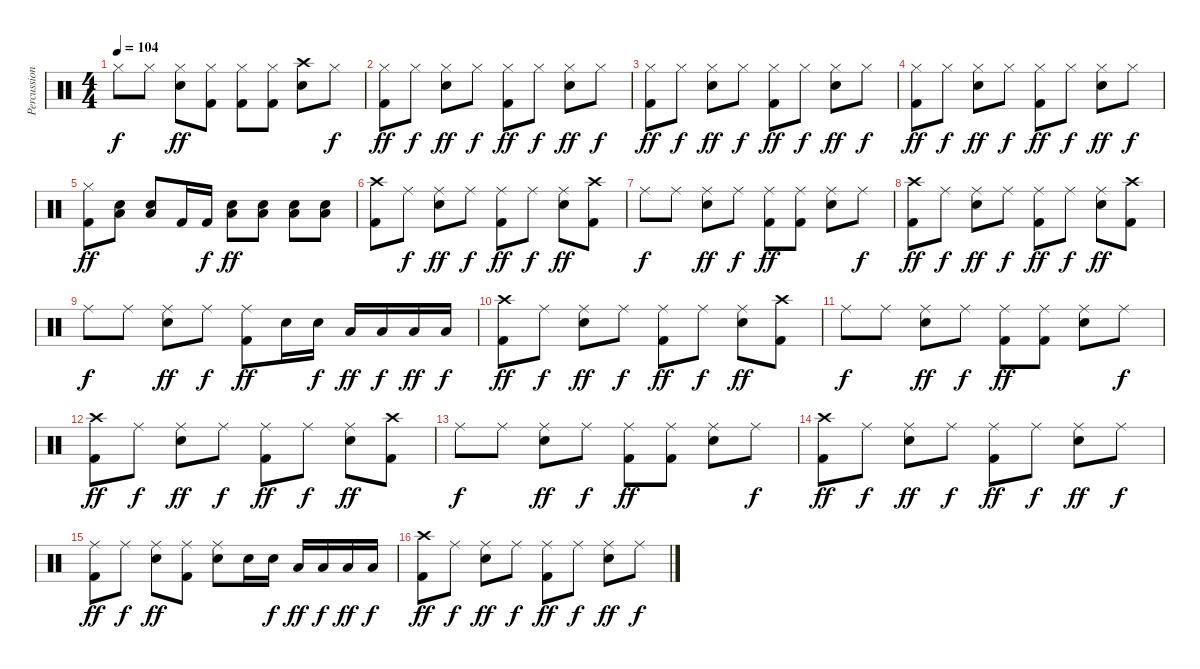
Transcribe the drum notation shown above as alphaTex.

\track ("Percussion" "Percussion") {instrument percussion}
\staff {score}
\articulation defaults
\ts (4 4)
\tempo 104
\clef neutral
\ks c "Hi-Hat (closed)".8{dy f} "Hi-Hat (closed)".8
("Hi-Hat (closed)" "Snare (hit) 2").8{dy ff} ("Hi-Hat (closed)" "Kick (hit) 2").8 ("Hi-Hat (closed)" "Kick (hit) 2").8 ("Hi-Hat (closed)" "Kick (hit) 2").8 ("Crash high (hit)" "Snare (hit) 2").8 "Hi-Hat (closed)".8{dy f} |
("Hi-Hat (closed)" "Kick (hit) 2").8{dy ff} "Hi-Hat (closed)".8{dy f} ("Hi-Hat (closed)" "Snare (hit) 2").8{dy ff} "Hi-Hat (closed)".8{dy f} ("Hi-Hat (closed)" "Kick (hit) 2").8{dy ff} "Hi-Hat (closed)".8{dy f} ("Hi-Hat (closed)" "Snare (hit) 2").8{dy ff} "Hi-Hat (closed)".8{dy f} |
("Hi-Hat (closed)" "Kick (hit) 2").8{dy ff} "Hi-Hat (closed)".8{dy f} ("Hi-Hat (closed)" "Snare (hit) 2").8{dy ff} "Hi-Hat (closed)".8{dy f} ("Hi-Hat (closed)" "Kick (hit) 2").8{dy ff} "Hi-Hat (closed)".8{dy f} ("Hi-Hat (closed)" "Snare (hit) 2").8{dy ff} "Hi-Hat (closed)".8{dy f} |
("Hi-Hat (closed)" "Kick (hit) 2").8{dy ff} "Hi-Hat (closed)".8{dy f} ("Hi-Hat (closed)" "Snare (hit) 2").8{dy ff} "Hi-Hat (closed)".8{dy f} ("Hi-Hat (closed)" "Kick (hit) 2").8{dy ff} "Hi-Hat (closed)".8{dy f} ("Hi-Hat (closed)" "Snare (hit) 2").8{dy ff} "Hi-Hat (closed)".8{dy f} |
("Hi-Hat (closed)" "Kick (hit) 2").8{dy ff} ("Low Tom (hit)" "Snare (hit) 2").8 ("Low Tom (hit)" "Snare (hit) 2").8 "Kick (hit) 2".16 "Kick (hit) 2".16{dy f} ("Low Floor Tom (hit)" "Snare (hit) 2").8{dy ff} ("Low Floor Tom (hit)" "Snare (hit) 2").8 ("Low Floor Tom (hit)" "Snare (hit) 2").8 ("Low Floor Tom (hit)" "Snare (hit) 2").8 |
("Crash high (hit)" "Kick (hit) 2").8 "Ride (middle)".8{dy f} ("Ride (middle)" "Snare (hit) 2").8{dy ff} "Ride (middle)".8{dy f} ("Ride (middle)" "Kick (hit) 2").8{dy ff} "Ride (middle)".8{dy f} ("Ride (middle)" "Snare (hit) 2").8{dy ff} ("Crash high (hit)" "Kick (hit) 2").8 |
"Ride (middle)".8{dy f} "Ride (middle)".8 ("Ride (middle)" "Snare (hit) 2").8{dy ff} "Ride (middle)".8{dy f} ("Ride (middle)" "Kick (hit) 2").8{dy ff} ("Ride (middle)" "Kick (hit) 2").8 ("Ride (middle)" "Snare (hit) 2").8 "Ride (middle)".8{dy f} |
("Crash high (hit)" "Kick (hit) 2").8{dy ff} "Ride (middle)".8{dy f} ("Ride (middle)" "Snare (hit) 2").8{dy ff} "Ride (middle)".8{dy f} ("Ride (middle)" "Kick (hit) 2").8{dy ff} "Ride (middle)".8{dy f} ("Ride (middle)" "Snare (hit) 2").8{dy ff} ("Crash high (hit)" "Kick (hit) 2").8 |
"Ride (middle)".8{dy f} "Ride (middle)".8 ("Ride (middle)" "Snare (hit) 2").8{dy ff} "Ride (middle)".8{dy f} ("Ride (middle)" "Kick (hit) 2").8{dy ff} "Snare (hit) 2".16 "Snare (hit) 2".16{dy f} "Low Tom (hit)".16{dy ff} "Low Tom (hit)".16{dy f} "Low Floor Tom (hit)".16{dy ff} "Low Floor Tom (hit)".16{dy f} |
("Crash high (hit)" "Kick (hit) 2").8{dy ff} "Ride (middle)".8{dy f} ("Ride (middle)" "Snare (hit) 2").8{dy ff} "Ride (middle)".8{dy f} ("Ride (middle)" "Kick (hit) 2").8{dy ff} "Ride (middle)".8{dy f} ("Ride (middle)" "Snare (hit) 2").8{dy ff} ("Crash high (hit)" "Kick (hit) 2").8 |
"Ride (middle)".8{dy f} "Ride (middle)".8 ("Ride (middle)" "Snare (hit) 2").8{dy ff} "Ride (middle)".8{dy f} ("Ride (middle)" "Kick (hit) 2").8{dy ff} ("Ride (middle)" "Kick (hit) 2").8 ("Ride (middle)" "Snare (hit) 2").8 "Ride (middle)".8{dy f} |
("Crash high (hit)" "Kick (hit) 2").8{dy ff} "Ride (middle)".8{dy f} ("Ride (middle)" "Snare (hit) 2").8{dy ff} "Ride (middle)".8{dy f} ("Ride (middle)" "Kick (hit) 2").8{dy ff} "Ride (middle)".8{dy f} ("Ride (middle)" "Snare (hit) 2").8{dy ff} ("Crash high (hit)" "Kick (hit) 2").8 |
"Ride (middle)".8{dy f} "Ride (middle)".8 ("Ride (middle)" "Snare (hit) 2").8{dy ff} "Ride (middle)".8{dy f} ("Ride (middle)" "Kick (hit) 2").8{dy ff} ("Ride (middle)" "Kick (hit) 2").8 ("Ride (middle)" "Snare (hit) 2").8 "Ride (middle)".8{dy f} |
("Crash high (hit)" "Kick (hit) 2").8{dy ff} "Ride (middle)".8{dy f} ("Ride (middle)" "Snare (hit) 2").8{dy ff} "Ride (middle)".8{dy f} ("Ride (middle)" "Kick (hit) 2").8{dy ff} "Ride (middle)".8{dy f} ("Ride (middle)" "Snare (hit) 2").8{dy ff} "Ride (middle)".8{dy f} |
("Ride (middle)" "Kick (hit) 2").8{dy ff} "Ride (middle)".8{dy f} ("Ride (middle)" "Snare (hit) 2").8{dy ff} ("Ride (middle)" "Kick (hit) 2").8 ("Ride (middle)" "Snare (hit) 2").8 "Snare (hit) 2".16 "Snare (hit) 2".16{dy f} "Low Tom (hit)".16{dy ff} "Low Tom (hit)".16{dy f} "Low Floor Tom (hit)".16{dy ff} "Low Floor Tom (hit)".16{dy f} |
("Crash high (hit)" "Kick (hit) 2").8{dy ff} "Ride (middle)".8{dy f} ("Ride (middle)" "Snare (hit) 2").8{dy ff} "Ride (middle)".8{dy f} ("Ride (middle)" "Kick (hit) 2").8{dy ff} "Ride (middle)".8{dy f} ("Ride (middle)" "Snare (hit) 2").8{dy ff} "Ride (middle)".8{dy f}
